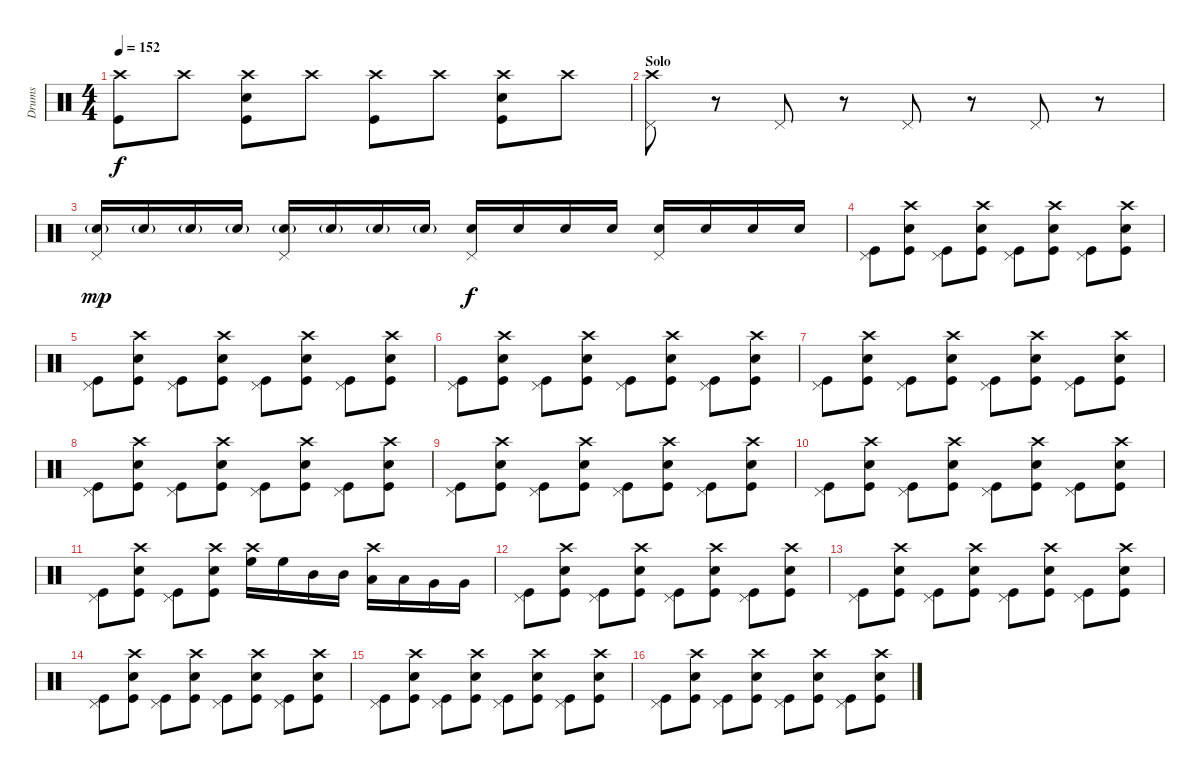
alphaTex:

\track ("Drums" "Drums") {instrument percussion}
\staff {score}
\articulation defaults
\ts (4 4)
\tempo 152
\clef neutral
\ks c
("Crash high (hit)" "Kick (hit)").8{dy f} "Crash high (hit)".8 ("Crash high (hit)" "Electric Snare (hit)" "Kick (hit)").8 "Crash high (hit)".8 ("Crash high (hit)" "Kick (hit)").8 "Crash high (hit)".8 ("Crash high (hit)" "Electric Snare (hit)" "Kick (hit)").8 "Crash high (hit)".8 |
\section ("" "Solo")
("Crash high (hit)" "Pedal Hi-Hat (hit)").8 r.8 "Pedal Hi-Hat (hit)".8 r.8 "Pedal Hi-Hat (hit)".8 r.8 "Pedal Hi-Hat (hit)".8 r.8 |
("Pedal Hi-Hat (hit)" "Electric Snare (hit)"{g}).16{dy mp} "Electric Snare (hit)"{g}.16 "Electric Snare (hit)"{g}.16 "Electric Snare (hit)"{g}.16 ("Pedal Hi-Hat (hit)" "Electric Snare (hit)"{g}).16 "Electric Snare (hit)"{g}.16 "Electric Snare (hit)"{g}.16 "Electric Snare (hit)"{g}.16 ("Pedal Hi-Hat (hit)" "Electric Snare (hit)").16{dy f} "Electric Snare (hit)".16 "Electric Snare (hit)".16 "Electric Snare (hit)".16 ("Pedal Hi-Hat (hit)" "Electric Snare (hit)").16 "Electric Snare (hit)".16 "Electric Snare (hit)".16 "Electric Snare (hit)".16 |
("Pedal Hi-Hat (hit)" "Kick (hit)").8 ("Crash high (hit)" "Electric Snare (hit)" "Kick (hit)").8 ("Pedal Hi-Hat (hit)" "Kick (hit)").8 ("Crash high (hit)" "Electric Snare (hit)" "Kick (hit)").8 ("Pedal Hi-Hat (hit)" "Kick (hit)").8 ("Crash high (hit)" "Electric Snare (hit)" "Kick (hit)").8 ("Pedal Hi-Hat (hit)" "Kick (hit)").8 ("Crash high (hit)" "Electric Snare (hit)" "Kick (hit)").8 |
("Pedal Hi-Hat (hit)" "Kick (hit)").8 ("Crash high (hit)" "Electric Snare (hit)" "Kick (hit)").8 ("Pedal Hi-Hat (hit)" "Kick (hit)").8 ("Crash high (hit)" "Electric Snare (hit)" "Kick (hit)").8 ("Pedal Hi-Hat (hit)" "Kick (hit)").8 ("Crash high (hit)" "Electric Snare (hit)" "Kick (hit)").8 ("Pedal Hi-Hat (hit)" "Kick (hit)").8 ("Crash high (hit)" "Electric Snare (hit)" "Kick (hit)").8 |
("Pedal Hi-Hat (hit)" "Kick (hit)").8 ("Crash high (hit)" "Electric Snare (hit)" "Kick (hit)").8 ("Pedal Hi-Hat (hit)" "Kick (hit)").8 ("Crash high (hit)" "Electric Snare (hit)" "Kick (hit)").8 ("Pedal Hi-Hat (hit)" "Kick (hit)").8 ("Crash high (hit)" "Electric Snare (hit)" "Kick (hit)").8 ("Pedal Hi-Hat (hit)" "Kick (hit)").8 ("Crash high (hit)" "Electric Snare (hit)" "Kick (hit)").8 |
("Pedal Hi-Hat (hit)" "Kick (hit)").8 ("Crash high (hit)" "Electric Snare (hit)" "Kick (hit)").8 ("Pedal Hi-Hat (hit)" "Kick (hit)").8 ("Crash high (hit)" "Electric Snare (hit)" "Kick (hit)").8 ("Pedal Hi-Hat (hit)" "Kick (hit)").8 ("Crash high (hit)" "Electric Snare (hit)" "Kick (hit)").8 ("Pedal Hi-Hat (hit)" "Kick (hit)").8 ("Crash high (hit)" "Electric Snare (hit)" "Kick (hit)").8 |
("Pedal Hi-Hat (hit)" "Kick (hit)").8 ("Crash high (hit)" "Electric Snare (hit)" "Kick (hit)").8 ("Pedal Hi-Hat (hit)" "Kick (hit)").8 ("Crash high (hit)" "Electric Snare (hit)" "Kick (hit)").8 ("Pedal Hi-Hat (hit)" "Kick (hit)").8 ("Crash high (hit)" "Electric Snare (hit)" "Kick (hit)").8 ("Pedal Hi-Hat (hit)" "Kick (hit)").8 ("Crash high (hit)" "Electric Snare (hit)" "Kick (hit)").8 |
("Pedal Hi-Hat (hit)" "Kick (hit)").8 ("Crash high (hit)" "Electric Snare (hit)" "Kick (hit)").8 ("Pedal Hi-Hat (hit)" "Kick (hit)").8 ("Crash high (hit)" "Electric Snare (hit)" "Kick (hit)").8 ("Pedal Hi-Hat (hit)" "Kick (hit)").8 ("Crash high (hit)" "Electric Snare (hit)" "Kick (hit)").8 ("Pedal Hi-Hat (hit)" "Kick (hit)").8 ("Crash high (hit)" "Electric Snare (hit)" "Kick (hit)").8 |
("Pedal Hi-Hat (hit)" "Kick (hit)").8 ("Crash high (hit)" "Electric Snare (hit)" "Kick (hit)").8 ("Pedal Hi-Hat (hit)" "Kick (hit)").8 ("Crash high (hit)" "Electric Snare (hit)" "Kick (hit)").8 ("Pedal Hi-Hat (hit)" "Kick (hit)").8 ("Crash high (hit)" "Electric Snare (hit)" "Kick (hit)").8 ("Pedal Hi-Hat (hit)" "Kick (hit)").8 ("Crash high (hit)" "Electric Snare (hit)" "Kick (hit)").8 |
("Pedal Hi-Hat (hit)" "Kick (hit)").8 ("Crash high (hit)" "Electric Snare (hit)" "Kick (hit)").8 ("Pedal Hi-Hat (hit)" "Kick (hit)").8 ("Crash high (hit)" "Electric Snare (hit)" "Kick (hit)").8 ("Crash high (hit)" "High Floor Tom (hit)").16 "High Floor Tom (hit)".16 "Mid Tom (hit)".16 "Mid Tom (hit)".16 ("Crash high (hit)" "Low Tom (hit)").16 "Low Tom (hit)".16 "Very Low Tom (hit)".16 "Very Low Tom (hit)".16 |
("Pedal Hi-Hat (hit)" "Kick (hit)").8 ("Crash high (hit)" "Electric Snare (hit)" "Kick (hit)").8 ("Pedal Hi-Hat (hit)" "Kick (hit)").8 ("Crash high (hit)" "Electric Snare (hit)" "Kick (hit)").8 ("Pedal Hi-Hat (hit)" "Kick (hit)").8 ("Crash high (hit)" "Electric Snare (hit)" "Kick (hit)").8 ("Pedal Hi-Hat (hit)" "Kick (hit)").8 ("Crash high (hit)" "Electric Snare (hit)" "Kick (hit)").8 |
("Pedal Hi-Hat (hit)" "Kick (hit)").8 ("Crash high (hit)" "Electric Snare (hit)" "Kick (hit)").8 ("Pedal Hi-Hat (hit)" "Kick (hit)").8 ("Crash high (hit)" "Electric Snare (hit)" "Kick (hit)").8 ("Pedal Hi-Hat (hit)" "Kick (hit)").8 ("Crash high (hit)" "Electric Snare (hit)" "Kick (hit)").8 ("Pedal Hi-Hat (hit)" "Kick (hit)").8 ("Crash high (hit)" "Electric Snare (hit)" "Kick (hit)").8 |
("Pedal Hi-Hat (hit)" "Kick (hit)").8 ("Crash high (hit)" "Electric Snare (hit)" "Kick (hit)").8 ("Pedal Hi-Hat (hit)" "Kick (hit)").8 ("Crash high (hit)" "Electric Snare (hit)" "Kick (hit)").8 ("Pedal Hi-Hat (hit)" "Kick (hit)").8 ("Crash high (hit)" "Electric Snare (hit)" "Kick (hit)").8 ("Pedal Hi-Hat (hit)" "Kick (hit)").8 ("Crash high (hit)" "Electric Snare (hit)" "Kick (hit)").8 |
("Pedal Hi-Hat (hit)" "Kick (hit)").8 ("Crash high (hit)" "Electric Snare (hit)" "Kick (hit)").8 ("Pedal Hi-Hat (hit)" "Kick (hit)").8 ("Crash high (hit)" "Electric Snare (hit)" "Kick (hit)").8 ("Pedal Hi-Hat (hit)" "Kick (hit)").8 ("Crash high (hit)" "Electric Snare (hit)" "Kick (hit)").8 ("Pedal Hi-Hat (hit)" "Kick (hit)").8 ("Crash high (hit)" "Electric Snare (hit)" "Kick (hit)").8 |
("Pedal Hi-Hat (hit)" "Kick (hit)").8 ("Crash high (hit)" "Electric Snare (hit)" "Kick (hit)").8 ("Pedal Hi-Hat (hit)" "Kick (hit)").8 ("Crash high (hit)" "Electric Snare (hit)" "Kick (hit)").8 ("Pedal Hi-Hat (hit)" "Kick (hit)").8 ("Crash high (hit)" "Electric Snare (hit)" "Kick (hit)").8 ("Pedal Hi-Hat (hit)" "Kick (hit)").8 ("Crash high (hit)" "Electric Snare (hit)" "Kick (hit)").8
